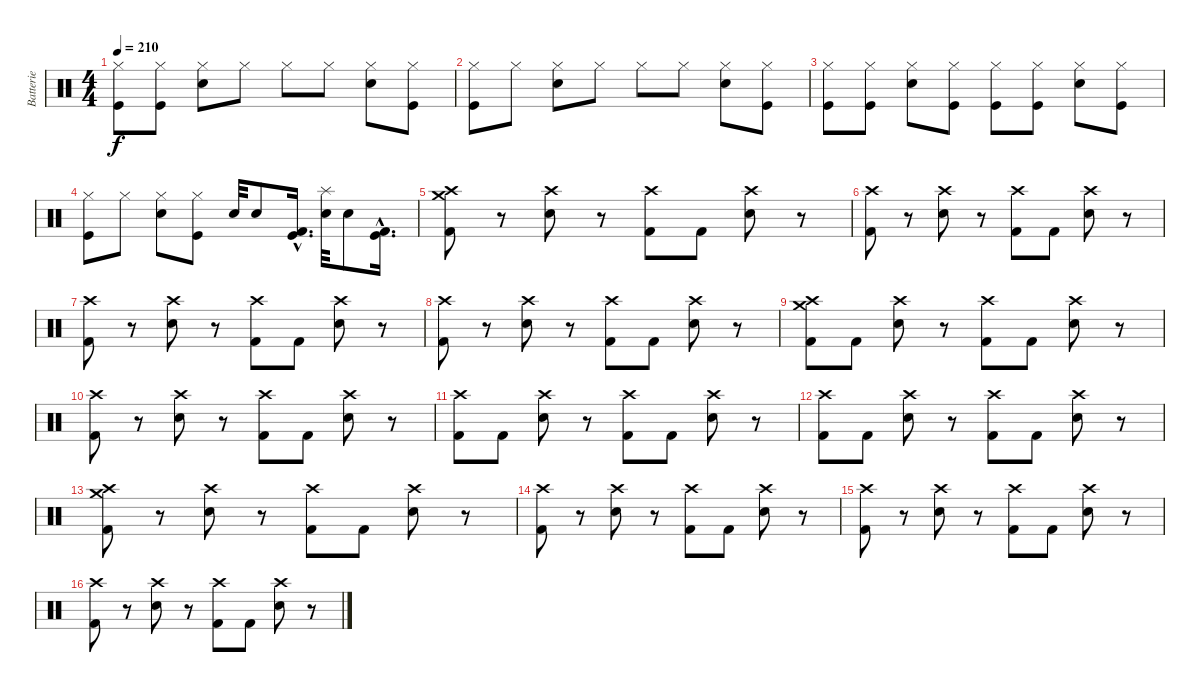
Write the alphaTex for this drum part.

\track ("Batterie" "Batterie") {instrument percussion}
\staff {score}
\articulation defaults
\ts (4 4)
\tempo 210
\clef neutral
\ks c
("Hi-Hat (closed)" "Kick (hit)").8{dy f} ("Hi-Hat (closed)" "Kick (hit)").8 ("Hi-Hat (closed)" "Snare (hit) 2").8 "Hi-Hat (closed)".8 "Hi-Hat (closed)".8 "Hi-Hat (closed)".8 ("Hi-Hat (closed)" "Snare (hit) 2").8 ("Hi-Hat (closed)" "Kick (hit)").8 |
("Hi-Hat (closed)" "Kick (hit)").8 "Hi-Hat (closed)".8 ("Hi-Hat (closed)" "Snare (hit) 2").8 "Hi-Hat (closed)".8 "Hi-Hat (closed)".8 "Hi-Hat (closed)".8 ("Hi-Hat (closed)" "Snare (hit) 2").8 ("Hi-Hat (closed)" "Kick (hit)").8 |
("Hi-Hat (closed)" "Kick (hit)").8 ("Hi-Hat (closed)" "Kick (hit)").8 ("Hi-Hat (closed)" "Snare (hit) 2").8 ("Hi-Hat (closed)" "Kick (hit)").8 ("Hi-Hat (closed)" "Kick (hit)").8 ("Hi-Hat (closed)" "Kick (hit)").8 ("Hi-Hat (closed)" "Snare (hit) 2").8 ("Hi-Hat (closed)" "Kick (hit)").8 |
("Hi-Hat (closed)" "Kick (hit)").8 "Hi-Hat (closed)".8 ("Hi-Hat (closed)" "Snare (hit) 2").8 ("Hi-Hat (closed)" "Kick (hit)").8 "Snare (hit) 2".32 "Snare (hit) 2".8 ("Kick (hit) 2"{hac} "Kick (hit)"{hac}).16{d} ("Splash (hit)" "Snare (hit) 2").32 "Snare (hit) 2".8 ("Kick (hit) 2"{hac} "Kick (hit)"{hac}).16{d} |
("Crash high (hit)" "Crash medium (hit)" "Kick (hit) 2").8 r.8 ("Crash high (hit)" "Snare (hit) 2").8 r.8 ("Crash high (hit)" "Kick (hit) 2").8 "Kick (hit) 2".8 ("Crash high (hit)" "Snare (hit) 2").8 r.8 |
("Crash high (hit)" "Kick (hit) 2").8 r.8 ("Crash high (hit)" "Snare (hit) 2").8 r.8 ("Crash high (hit)" "Kick (hit) 2").8 "Kick (hit) 2".8 ("Crash high (hit)" "Snare (hit) 2").8 r.8 |
("Crash high (hit)" "Kick (hit) 2").8 r.8 ("Crash high (hit)" "Snare (hit) 2").8 r.8 ("Crash high (hit)" "Kick (hit) 2").8 "Kick (hit) 2".8 ("Crash high (hit)" "Snare (hit) 2").8 r.8 |
("Crash high (hit)" "Kick (hit) 2").8 r.8 ("Crash high (hit)" "Snare (hit) 2").8 r.8 ("Crash high (hit)" "Kick (hit) 2").8 "Kick (hit) 2".8 ("Crash high (hit)" "Snare (hit) 2").8 r.8 |
("Crash high (hit)" "Crash medium (hit)" "Kick (hit) 2").8 "Kick (hit) 2".8 ("Crash high (hit)" "Snare (hit) 2").8 r.8 ("Crash high (hit)" "Kick (hit) 2").8 "Kick (hit) 2".8 ("Crash high (hit)" "Snare (hit) 2").8 r.8 |
("Crash high (hit)" "Kick (hit) 2").8 r.8 ("Crash high (hit)" "Snare (hit) 2").8 r.8 ("Crash high (hit)" "Kick (hit) 2").8 "Kick (hit) 2".8 ("Crash high (hit)" "Snare (hit) 2").8 r.8 |
("Crash high (hit)" "Kick (hit) 2").8 "Kick (hit) 2".8 ("Crash high (hit)" "Snare (hit) 2").8 r.8 ("Crash high (hit)" "Kick (hit) 2").8 "Kick (hit) 2".8 ("Crash high (hit)" "Snare (hit) 2").8 r.8 |
("Crash high (hit)" "Kick (hit) 2").8 "Kick (hit) 2".8 ("Crash high (hit)" "Snare (hit) 2").8 r.8 ("Crash high (hit)" "Kick (hit) 2").8 "Kick (hit) 2".8 ("Crash high (hit)" "Snare (hit) 2").8 r.8 |
("Crash high (hit)" "Crash medium (hit)" "Kick (hit) 2").8 r.8 ("Crash high (hit)" "Snare (hit) 2").8 r.8 ("Crash high (hit)" "Kick (hit) 2").8 "Kick (hit) 2".8 ("Crash high (hit)" "Snare (hit) 2").8 r.8 |
("Crash high (hit)" "Kick (hit) 2").8 r.8 ("Crash high (hit)" "Snare (hit) 2").8 r.8 ("Crash high (hit)" "Kick (hit) 2").8 "Kick (hit) 2".8 ("Crash high (hit)" "Snare (hit) 2").8 r.8 |
("Crash high (hit)" "Kick (hit) 2").8 r.8 ("Crash high (hit)" "Snare (hit) 2").8 r.8 ("Crash high (hit)" "Kick (hit) 2").8 "Kick (hit) 2".8 ("Crash high (hit)" "Snare (hit) 2").8 r.8 |
("Crash high (hit)" "Kick (hit) 2").8 r.8 ("Crash high (hit)" "Snare (hit) 2").8 r.8 ("Crash high (hit)" "Kick (hit) 2").8 "Kick (hit) 2".8 ("Crash high (hit)" "Snare (hit) 2").8 r.8
